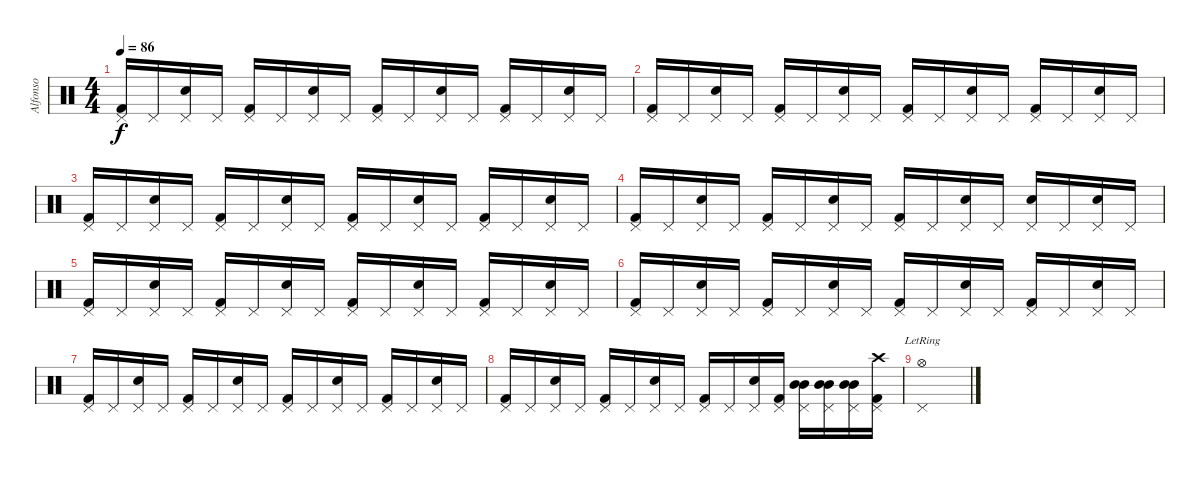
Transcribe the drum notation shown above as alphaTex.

\track ("Alfonso" "Alfonso") {instrument percussion}
\staff {score}
\articulation defaults
\ts (4 4)
\tempo 86
\clef neutral
\ks c
("Pedal Hi-Hat (hit)" "Kick (hit) 2").16{dy f} "Pedal Hi-Hat (hit)".16 ("Pedal Hi-Hat (hit)" "Electric Snare (hit)").16 "Pedal Hi-Hat (hit)".16 ("Pedal Hi-Hat (hit)" "Kick (hit) 2").16 "Pedal Hi-Hat (hit)".16 ("Pedal Hi-Hat (hit)" "Electric Snare (hit)").16 "Pedal Hi-Hat (hit)".16 ("Pedal Hi-Hat (hit)" "Kick (hit) 2").16 "Pedal Hi-Hat (hit)".16 ("Pedal Hi-Hat (hit)" "Electric Snare (hit)").16 "Pedal Hi-Hat (hit)".16 ("Pedal Hi-Hat (hit)" "Kick (hit) 2").16 "Pedal Hi-Hat (hit)".16 ("Pedal Hi-Hat (hit)" "Electric Snare (hit)").16 "Pedal Hi-Hat (hit)".16 |
("Pedal Hi-Hat (hit)" "Kick (hit) 2").16 "Pedal Hi-Hat (hit)".16 ("Pedal Hi-Hat (hit)" "Electric Snare (hit)").16 "Pedal Hi-Hat (hit)".16 ("Pedal Hi-Hat (hit)" "Kick (hit) 2").16 "Pedal Hi-Hat (hit)".16 ("Pedal Hi-Hat (hit)" "Electric Snare (hit)").16 "Pedal Hi-Hat (hit)".16 ("Pedal Hi-Hat (hit)" "Kick (hit) 2").16 "Pedal Hi-Hat (hit)".16 ("Pedal Hi-Hat (hit)" "Electric Snare (hit)").16 "Pedal Hi-Hat (hit)".16 ("Pedal Hi-Hat (hit)" "Kick (hit) 2").16 "Pedal Hi-Hat (hit)".16 ("Pedal Hi-Hat (hit)" "Electric Snare (hit)").16 "Pedal Hi-Hat (hit)".16 |
("Pedal Hi-Hat (hit)" "Kick (hit) 2").16 "Pedal Hi-Hat (hit)".16 ("Pedal Hi-Hat (hit)" "Electric Snare (hit)").16 "Pedal Hi-Hat (hit)".16 ("Pedal Hi-Hat (hit)" "Kick (hit) 2").16 "Pedal Hi-Hat (hit)".16 ("Pedal Hi-Hat (hit)" "Electric Snare (hit)").16 "Pedal Hi-Hat (hit)".16 ("Pedal Hi-Hat (hit)" "Kick (hit) 2").16 "Pedal Hi-Hat (hit)".16 ("Pedal Hi-Hat (hit)" "Electric Snare (hit)").16 "Pedal Hi-Hat (hit)".16 ("Pedal Hi-Hat (hit)" "Kick (hit) 2").16 "Pedal Hi-Hat (hit)".16 ("Pedal Hi-Hat (hit)" "Electric Snare (hit)").16 "Pedal Hi-Hat (hit)".16 |
("Pedal Hi-Hat (hit)" "Kick (hit) 2").16 "Pedal Hi-Hat (hit)".16 ("Pedal Hi-Hat (hit)" "Electric Snare (hit)").16 "Pedal Hi-Hat (hit)".16 ("Pedal Hi-Hat (hit)" "Kick (hit) 2").16 "Pedal Hi-Hat (hit)".16 ("Pedal Hi-Hat (hit)" "Electric Snare (hit)").16 "Pedal Hi-Hat (hit)".16 ("Pedal Hi-Hat (hit)" "Kick (hit) 2").16 "Pedal Hi-Hat (hit)".16 ("Pedal Hi-Hat (hit)" "Electric Snare (hit)").16 "Pedal Hi-Hat (hit)".16 ("Pedal Hi-Hat (hit)" "Electric Snare (hit)").16 "Pedal Hi-Hat (hit)".16 ("Pedal Hi-Hat (hit)" "Electric Snare (hit)").16 "Pedal Hi-Hat (hit)".16 |
("Pedal Hi-Hat (hit)" "Kick (hit) 2").16 "Pedal Hi-Hat (hit)".16 ("Pedal Hi-Hat (hit)" "Electric Snare (hit)").16 "Pedal Hi-Hat (hit)".16 ("Pedal Hi-Hat (hit)" "Kick (hit) 2").16 "Pedal Hi-Hat (hit)".16 ("Pedal Hi-Hat (hit)" "Electric Snare (hit)").16 "Pedal Hi-Hat (hit)".16 ("Pedal Hi-Hat (hit)" "Kick (hit) 2").16 "Pedal Hi-Hat (hit)".16 ("Pedal Hi-Hat (hit)" "Electric Snare (hit)").16 "Pedal Hi-Hat (hit)".16 ("Pedal Hi-Hat (hit)" "Kick (hit) 2").16 "Pedal Hi-Hat (hit)".16 ("Pedal Hi-Hat (hit)" "Electric Snare (hit)").16 "Pedal Hi-Hat (hit)".16 |
("Pedal Hi-Hat (hit)" "Kick (hit) 2").16 "Pedal Hi-Hat (hit)".16 ("Pedal Hi-Hat (hit)" "Electric Snare (hit)").16 "Pedal Hi-Hat (hit)".16 ("Pedal Hi-Hat (hit)" "Kick (hit) 2").16 "Pedal Hi-Hat (hit)".16 ("Pedal Hi-Hat (hit)" "Electric Snare (hit)").16 "Pedal Hi-Hat (hit)".16 ("Pedal Hi-Hat (hit)" "Kick (hit) 2").16 "Pedal Hi-Hat (hit)".16 ("Pedal Hi-Hat (hit)" "Electric Snare (hit)").16 "Pedal Hi-Hat (hit)".16 ("Pedal Hi-Hat (hit)" "Kick (hit) 2").16 "Pedal Hi-Hat (hit)".16 ("Pedal Hi-Hat (hit)" "Electric Snare (hit)").16 "Pedal Hi-Hat (hit)".16 |
("Pedal Hi-Hat (hit)" "Kick (hit) 2").16 "Pedal Hi-Hat (hit)".16 ("Pedal Hi-Hat (hit)" "Electric Snare (hit)").16 "Pedal Hi-Hat (hit)".16 ("Pedal Hi-Hat (hit)" "Kick (hit) 2").16 "Pedal Hi-Hat (hit)".16 ("Pedal Hi-Hat (hit)" "Electric Snare (hit)").16 "Pedal Hi-Hat (hit)".16 ("Pedal Hi-Hat (hit)" "Kick (hit) 2").16 "Pedal Hi-Hat (hit)".16 ("Pedal Hi-Hat (hit)" "Electric Snare (hit)").16 "Pedal Hi-Hat (hit)".16 ("Pedal Hi-Hat (hit)" "Kick (hit) 2").16 "Pedal Hi-Hat (hit)".16 ("Pedal Hi-Hat (hit)" "Electric Snare (hit)").16 "Pedal Hi-Hat (hit)".16 |
("Pedal Hi-Hat (hit)" "Kick (hit) 2").16 "Pedal Hi-Hat (hit)".16 ("Pedal Hi-Hat (hit)" "Electric Snare (hit)").16 "Pedal Hi-Hat (hit)".16 ("Pedal Hi-Hat (hit)" "Kick (hit) 2").16 "Pedal Hi-Hat (hit)".16 ("Pedal Hi-Hat (hit)" "Electric Snare (hit)").16 "Pedal Hi-Hat (hit)".16 ("Pedal Hi-Hat (hit)" "Kick (hit) 2").16 "Pedal Hi-Hat (hit)".16 ("Pedal Hi-Hat (hit)" "Electric Snare (hit)").16 ("Pedal Hi-Hat (hit)" "Kick (hit) 2").16 ("Pedal Hi-Hat (hit)" "Mid Tom (hit)" "Mid Tom (hit)").16 ("Pedal Hi-Hat (hit)" "Mid Tom (hit)" "Mid Tom (hit)").16 ("Pedal Hi-Hat (hit)" "Mid Tom (hit)" "Mid Tom (hit)").16 ("Pedal Hi-Hat (hit)" "Crash high (hit)" "Kick (hit) 2").16 |
("Pedal Hi-Hat (hit)"{lr} "Hi-Hat (open)"{lr}).1
